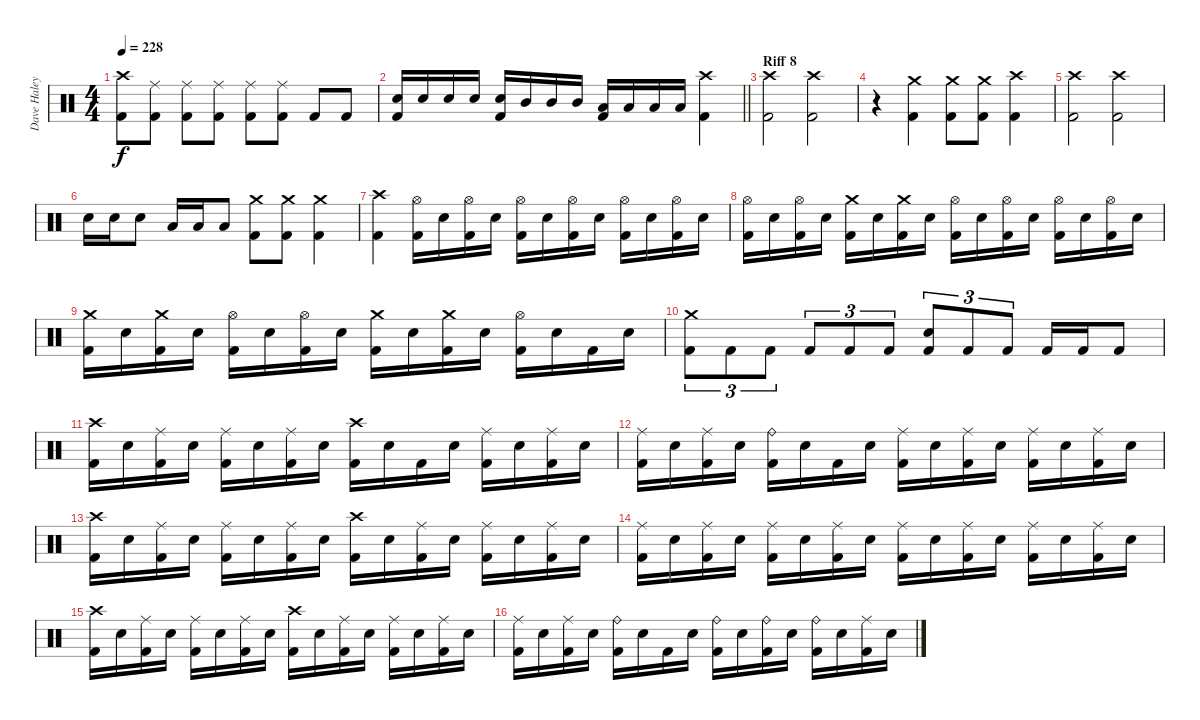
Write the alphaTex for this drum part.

\track ("Dave Haley" "Dave Haley") {instrument percussion}
\staff {score}
\articulation defaults
\ts (4 4)
\tempo 228
\clef neutral
\ks c
("Crash high (hit)" "Kick (hit) 2").8{dy f} ("Ride (middle)" "Kick (hit) 2").8 ("Ride (middle)" "Kick (hit) 2").8 ("Ride (middle)" "Kick (hit) 2").8 ("Ride (middle)" "Kick (hit) 2").8 ("Ride (middle)" "Kick (hit) 2").8 "Kick (hit) 2".8 "Kick (hit) 2".8 |
\barLineRight lightlight
("Snare (hit) 2" "Kick (hit) 2").16 "Snare (hit) 2".16 "Snare (hit) 2".16 "Snare (hit) 2".16 ("Snare (hit) 2" "Kick (hit) 2").16 "Mid Tom (hit)".16 "Mid Tom (hit)".16 "Mid Tom (hit)".16 ("Low Tom (hit)" "Kick (hit) 2").16 "Low Tom (hit)".16 "Low Tom (hit)".16 "Low Tom (hit)".16 ("Crash high (hit)" "Kick (hit) 2").4 |
\section ("" "Riff 8")
("Crash high (hit)" "Kick (hit) 2").2 ("Crash high (hit)" "Kick (hit) 2").2 |
r.4 ("Crash medium (hit)" "Kick (hit) 2").4 ("Crash medium (hit)" "Kick (hit) 2").8 ("Crash medium (hit)" "Kick (hit) 2").8 ("Crash high (hit)" "Kick (hit) 2").4 |
("Crash high (hit)" "Kick (hit) 2").2 ("Crash high (hit)" "Kick (hit) 2").2 |
"Snare (hit) 2".16 "Snare (hit) 2".16 "Snare (hit) 2".8 "Low Tom (hit)".16 "Low Tom (hit)".16 "Low Tom (hit)".8 ("Crash medium (hit)" "Kick (hit) 2").8 ("Crash medium (hit)" "Kick (hit) 2").8 ("Crash medium (hit)" "Kick (hit) 2").4 |
("Crash high (hit)" "Kick (hit) 2").4 ("Hi-Hat (open)" "Kick (hit) 2").16 "Snare (hit) 2".16 ("Hi-Hat (open)" "Kick (hit) 2").16 "Snare (hit) 2".16 ("Hi-Hat (open)" "Kick (hit) 2").16 "Snare (hit) 2".16 ("Hi-Hat (open)" "Kick (hit) 2").16 "Snare (hit) 2".16 ("Hi-Hat (open)" "Kick (hit) 2").16 "Snare (hit) 2".16 ("Hi-Hat (open)" "Kick (hit) 2").16 "Snare (hit) 2".16 |
("Hi-Hat (open)" "Kick (hit) 2").16 "Snare (hit) 2".16 ("Hi-Hat (open)" "Kick (hit) 2").16 "Snare (hit) 2".16 ("Crash medium (hit)" "Kick (hit) 2").16 "Snare (hit) 2".16 ("Crash medium (hit)" "Kick (hit) 2").16 "Snare (hit) 2".16 ("Hi-Hat (open)" "Kick (hit) 2").16 "Snare (hit) 2".16 ("Hi-Hat (open)" "Kick (hit) 2").16 "Snare (hit) 2".16 ("Hi-Hat (open)" "Kick (hit) 2").16 "Snare (hit) 2".16 ("Hi-Hat (open)" "Kick (hit) 2").16 "Snare (hit) 2".16 |
("Crash medium (hit)" "Kick (hit) 2").16 "Snare (hit) 2".16 ("Crash medium (hit)" "Kick (hit) 2").16 "Snare (hit) 2".16 ("Hi-Hat (open)" "Kick (hit) 2").16 "Snare (hit) 2".16 ("Hi-Hat (open)" "Kick (hit) 2").16 "Snare (hit) 2".16 ("Crash medium (hit)" "Kick (hit) 2").16 "Snare (hit) 2".16 ("Crash medium (hit)" "Kick (hit) 2").16 "Snare (hit) 2".16 ("Hi-Hat (open)" "Kick (hit) 2").16 "Snare (hit) 2".16 "Kick (hit) 2".16 "Snare (hit) 2".16 |
("Crash medium (hit)" "Kick (hit) 2").8{tu (3 2)} "Kick (hit) 2".8{tu (3 2)} "Kick (hit) 2".8{tu (3 2)} "Kick (hit) 2".8{tu (3 2)} "Kick (hit) 2".8{tu (3 2)} "Kick (hit) 2".8{tu (3 2)} ("Snare (hit) 2" "Kick (hit) 2").8{tu (3 2)} "Kick (hit) 2".8{tu (3 2)} "Kick (hit) 2".8{tu (3 2)} "Kick (hit) 2".16 "Kick (hit) 2".16 "Kick (hit) 2".8 |
("Crash high (hit)" "Kick (hit) 2").16 "Snare (hit) 2".16 ("Ride (middle)" "Kick (hit) 2").16 "Snare (hit) 2".16 ("Ride (middle)" "Kick (hit) 2").16 "Snare (hit) 2".16 ("Ride (middle)" "Kick (hit) 2").16 "Snare (hit) 2".16 ("Crash high (hit)" "Kick (hit) 2").16 "Snare (hit) 2".16 "Kick (hit) 2".16 "Snare (hit) 2".16 ("Ride (middle)" "Kick (hit) 2").16 "Snare (hit) 2".16 ("Ride (middle)" "Kick (hit) 2").16 "Snare (hit) 2".16 |
("Ride (middle)" "Kick (hit) 2").16 "Snare (hit) 2".16 ("Ride (middle)" "Kick (hit) 2").16 "Snare (hit) 2".16 ("Ride (bell)" "Kick (hit) 2").16 "Snare (hit) 2".16 "Kick (hit) 2".16 "Snare (hit) 2".16 ("Ride (middle)" "Kick (hit) 2").16 "Snare (hit) 2".16 ("Ride (middle)" "Kick (hit) 2").16 "Snare (hit) 2".16 ("Ride (middle)" "Kick (hit) 2").16 "Snare (hit) 2".16 ("Ride (middle)" "Kick (hit) 2").16 "Snare (hit) 2".16 |
("Crash high (hit)" "Kick (hit) 2").16 "Snare (hit) 2".16 ("Ride (middle)" "Kick (hit) 2").16 "Snare (hit) 2".16 ("Ride (middle)" "Kick (hit) 2").16 "Snare (hit) 2".16 ("Ride (middle)" "Kick (hit) 2").16 "Snare (hit) 2".16 ("Crash high (hit)" "Kick (hit) 2").16 "Snare (hit) 2".16 ("Ride (middle)" "Kick (hit) 2").16 "Snare (hit) 2".16 ("Ride (middle)" "Kick (hit) 2").16 "Snare (hit) 2".16 ("Ride (middle)" "Kick (hit) 2").16 "Snare (hit) 2".16 |
("Ride (middle)" "Kick (hit) 2").16 "Snare (hit) 2".16 ("Ride (middle)" "Kick (hit) 2").16 "Snare (hit) 2".16 ("Ride (middle)" "Kick (hit) 2").16 "Snare (hit) 2".16 ("Ride (middle)" "Kick (hit) 2").16 "Snare (hit) 2".16 ("Ride (middle)" "Kick (hit) 2").16 "Snare (hit) 2".16 ("Ride (middle)" "Kick (hit) 2").16 "Snare (hit) 2".16 ("Ride (middle)" "Kick (hit) 2").16 "Snare (hit) 2".16 ("Ride (middle)" "Kick (hit) 2").16 "Snare (hit) 2".16 |
("Crash high (hit)" "Kick (hit) 2").16 "Snare (hit) 2".16 ("Ride (middle)" "Kick (hit) 2").16 "Snare (hit) 2".16 ("Ride (middle)" "Kick (hit) 2").16 "Snare (hit) 2".16 ("Ride (middle)" "Kick (hit) 2").16 "Snare (hit) 2".16 ("Crash high (hit)" "Kick (hit) 2").16 "Snare (hit) 2".16 ("Ride (middle)" "Kick (hit) 2").16 "Snare (hit) 2".16 ("Ride (middle)" "Kick (hit) 2").16 "Snare (hit) 2".16 ("Ride (middle)" "Kick (hit) 2").16 "Snare (hit) 2".16 |
("Ride (middle)" "Kick (hit) 2").16 "Snare (hit) 2".16 ("Ride (middle)" "Kick (hit) 2").16 "Snare (hit) 2".16 ("Ride (bell)" "Kick (hit) 2").16 "Snare (hit) 2".16 "Kick (hit) 2".16 "Snare (hit) 2".16 ("Ride (bell)" "Kick (hit) 2").16 "Snare (hit) 2".16 ("Ride (bell)" "Kick (hit) 2").16 "Snare (hit) 2".16 ("Ride (bell)" "Kick (hit) 2").16 "Snare (hit) 2".16 ("Ride (middle)" "Kick (hit) 2").16 "Snare (hit) 2".16
